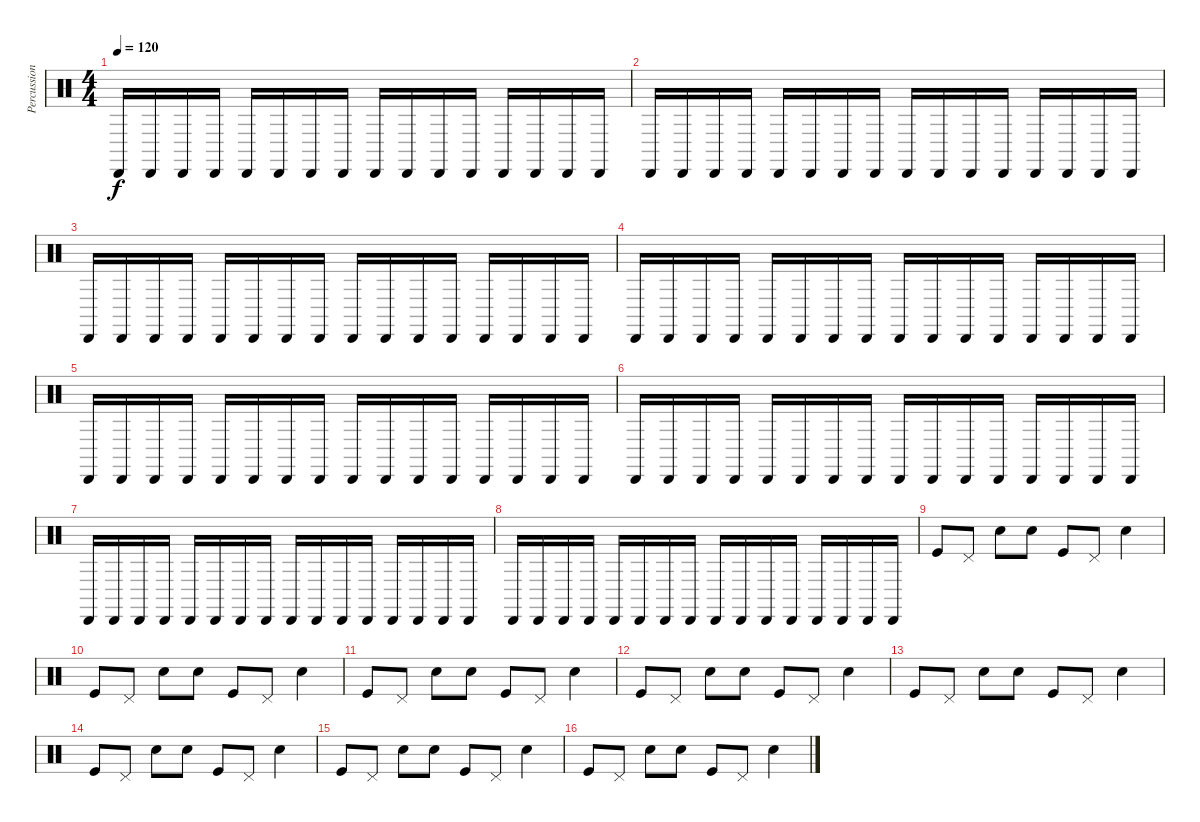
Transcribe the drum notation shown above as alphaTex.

\track ("Percussion" "Percussion") {instrument percussion}
\staff {score}
\articulation defaults
\ts (4 4)
\tempo 120
\clef neutral
\ks c "Cabasa (hit)".16{dy f} "Cabasa (hit)".16 "Cabasa (hit)".16 "Cabasa (hit)".16 "Cabasa (hit)".16 "Cabasa (hit)".16 "Cabasa (hit)".16 "Cabasa (hit)".16 "Cabasa (hit)".16 "Cabasa (hit)".16 "Cabasa (hit)".16 "Cabasa (hit)".16 "Cabasa (hit)".16 "Cabasa (hit)".16 "Cabasa (hit)".16 "Cabasa (hit)".16
|
"Cabasa (hit)".16 "Cabasa (hit)".16 "Cabasa (hit)".16 "Cabasa (hit)".16 "Cabasa (hit)".16 "Cabasa (hit)".16 "Cabasa (hit)".16 "Cabasa (hit)".16 "Cabasa (hit)".16 "Cabasa (hit)".16 "Cabasa (hit)".16 "Cabasa (hit)".16 "Cabasa (hit)".16 "Cabasa (hit)".16 "Cabasa (hit)".16 "Cabasa (hit)".16 |
"Cabasa (hit)".16 "Cabasa (hit)".16 "Cabasa (hit)".16 "Cabasa (hit)".16 "Cabasa (hit)".16 "Cabasa (hit)".16 "Cabasa (hit)".16 "Cabasa (hit)".16 "Cabasa (hit)".16 "Cabasa (hit)".16 "Cabasa (hit)".16 "Cabasa (hit)".16 "Cabasa (hit)".16 "Cabasa (hit)".16 "Cabasa (hit)".16 "Cabasa (hit)".16 |
"Cabasa (hit)".16 "Cabasa (hit)".16 "Cabasa (hit)".16 "Cabasa (hit)".16 "Cabasa (hit)".16 "Cabasa (hit)".16 "Cabasa (hit)".16 "Cabasa (hit)".16 "Cabasa (hit)".16 "Cabasa (hit)".16 "Cabasa (hit)".16 "Cabasa (hit)".16 "Cabasa (hit)".16 "Cabasa (hit)".16 "Cabasa (hit)".16 "Cabasa (hit)".16 |
"Cabasa (hit)".16 "Cabasa (hit)".16 "Cabasa (hit)".16 "Cabasa (hit)".16 "Cabasa (hit)".16 "Cabasa (hit)".16 "Cabasa (hit)".16 "Cabasa (hit)".16 "Cabasa (hit)".16 "Cabasa (hit)".16 "Cabasa (hit)".16 "Cabasa (hit)".16 "Cabasa (hit)".16 "Cabasa (hit)".16 "Cabasa (hit)".16 "Cabasa (hit)".16 |
"Cabasa (hit)".16 "Cabasa (hit)".16 "Cabasa (hit)".16 "Cabasa (hit)".16 "Cabasa (hit)".16 "Cabasa (hit)".16 "Cabasa (hit)".16 "Cabasa (hit)".16 "Cabasa (hit)".16 "Cabasa (hit)".16 "Cabasa (hit)".16 "Cabasa (hit)".16 "Cabasa (hit)".16 "Cabasa (hit)".16 "Cabasa (hit)".16 "Cabasa (hit)".16 |
"Cabasa (hit)".16 "Cabasa (hit)".16 "Cabasa (hit)".16 "Cabasa (hit)".16 "Cabasa (hit)".16 "Cabasa (hit)".16 "Cabasa (hit)".16 "Cabasa (hit)".16 "Cabasa (hit)".16 "Cabasa (hit)".16 "Cabasa (hit)".16 "Cabasa (hit)".16 "Cabasa (hit)".16 "Cabasa (hit)".16 "Cabasa (hit)".16 "Cabasa (hit)".16 |
"Cabasa (hit)".16 "Cabasa (hit)".16 "Cabasa (hit)".16 "Cabasa (hit)".16 "Cabasa (hit)".16 "Cabasa (hit)".16 "Cabasa (hit)".16 "Cabasa (hit)".16 "Cabasa (hit)".16 "Cabasa (hit)".16 "Cabasa (hit)".16 "Cabasa (hit)".16 "Cabasa (hit)".16 "Cabasa (hit)".16 "Cabasa (hit)".16 "Cabasa (hit)".16 |
"Kick (hit)".8 "Pedal Hi-Hat (hit)".8 "Hand Clap (hit)".8 "Hand Clap (hit)".8 "Kick (hit)".8 "Pedal Hi-Hat (hit)".8 "Hand Clap (hit)".4 |
"Kick (hit)".8 "Pedal Hi-Hat (hit)".8 "Hand Clap (hit)".8 "Hand Clap (hit)".8 "Kick (hit)".8 "Pedal Hi-Hat (hit)".8 "Hand Clap (hit)".4 |
"Kick (hit)".8 "Pedal Hi-Hat (hit)".8 "Hand Clap (hit)".8 "Hand Clap (hit)".8 "Kick (hit)".8 "Pedal Hi-Hat (hit)".8 "Hand Clap (hit)".4 |
"Kick (hit)".8 "Pedal Hi-Hat (hit)".8 "Hand Clap (hit)".8 "Hand Clap (hit)".8 "Kick (hit)".8 "Pedal Hi-Hat (hit)".8 "Hand Clap (hit)".4 |
"Kick (hit)".8 "Pedal Hi-Hat (hit)".8 "Hand Clap (hit)".8 "Hand Clap (hit)".8 "Kick (hit)".8 "Pedal Hi-Hat (hit)".8 "Hand Clap (hit)".4 |
"Kick (hit)".8 "Pedal Hi-Hat (hit)".8 "Hand Clap (hit)".8 "Hand Clap (hit)".8 "Kick (hit)".8 "Pedal Hi-Hat (hit)".8 "Hand Clap (hit)".4 |
"Kick (hit)".8 "Pedal Hi-Hat (hit)".8 "Hand Clap (hit)".8 "Hand Clap (hit)".8 "Kick (hit)".8 "Pedal Hi-Hat (hit)".8 "Hand Clap (hit)".4 |
"Kick (hit)".8 "Pedal Hi-Hat (hit)".8 "Hand Clap (hit)".8 "Hand Clap (hit)".8 "Kick (hit)".8 "Pedal Hi-Hat (hit)".8 "Hand Clap (hit)".4
